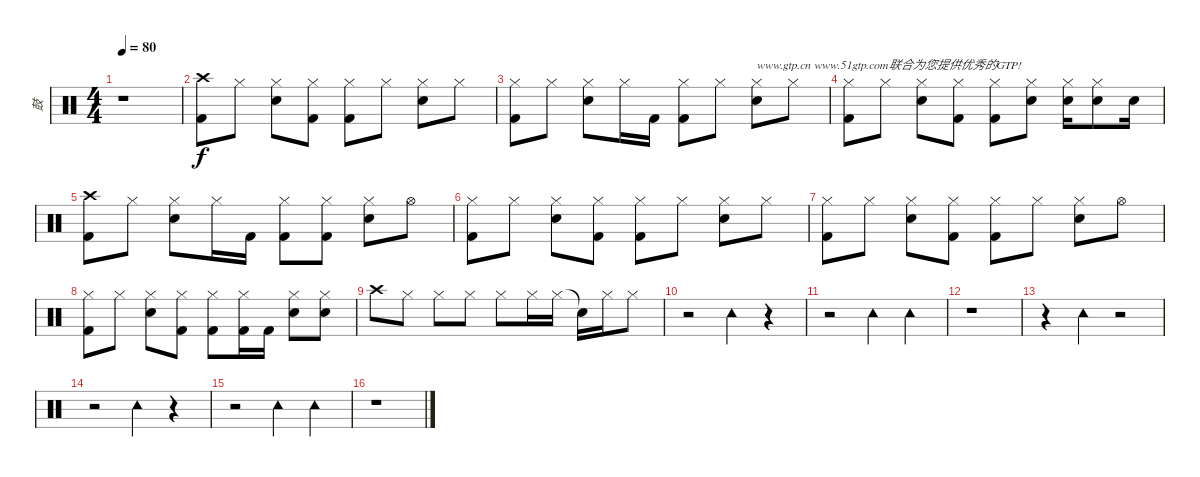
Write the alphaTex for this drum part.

\track ("鼓" "鼓") {instrument percussion}
\staff {score}
\articulation defaults
\ts (4 4)
\tempo 80
\clef neutral
\ks c
r.1{dy f} |
("Crash high (hit)" "Kick (hit) 2").8 "Hi-Hat (closed)".8 ("Hi-Hat (closed)" "Snare (hit) 2").8 ("Hi-Hat (closed)" "Kick (hit) 2").8 ("Hi-Hat (closed)" "Kick (hit) 2").8 "Hi-Hat (closed)".8 ("Hi-Hat (closed)" "Snare (hit) 2").8 "Hi-Hat (closed)".8 |
("Hi-Hat (closed)" "Kick (hit) 2").8 "Hi-Hat (closed)".8 ("Hi-Hat (closed)" "Snare (hit) 2").8 "Hi-Hat (closed)".16 "Kick (hit) 2".16 ("Hi-Hat (closed)" "Kick (hit) 2").8 "Hi-Hat (closed)".8 ("Hi-Hat (closed)" "Snare (hit) 2").8{txt "www.gtp.cn www.51gtp.com联合为您提供优秀的GTP!"} "Hi-Hat (closed)".8 |
("Hi-Hat (closed)" "Kick (hit) 2").8 "Hi-Hat (closed)".8 ("Hi-Hat (closed)" "Snare (hit) 2").8 ("Hi-Hat (closed)" "Kick (hit) 2").8 ("Hi-Hat (closed)" "Kick (hit) 2").8 ("Hi-Hat (closed)" "Snare (hit) 2").8 ("Hi-Hat (closed)" "Snare (hit) 2").16 ("Hi-Hat (closed)" "Snare (hit) 2").8 "Snare (hit) 2".16 |
("Crash high (hit)" "Kick (hit) 2").8 "Hi-Hat (closed)".8 ("Hi-Hat (closed)" "Snare (hit) 2").8 "Hi-Hat (closed)".16 "Kick (hit) 2".16 ("Hi-Hat (closed)" "Kick (hit) 2").8 ("Hi-Hat (closed)" "Kick (hit) 2").8 ("Hi-Hat (closed)" "Snare (hit) 2").8 "Hi-Hat (open)".8 |
("Hi-Hat (closed)" "Kick (hit) 2").8 "Hi-Hat (closed)".8 ("Hi-Hat (closed)" "Snare (hit) 2").8 ("Hi-Hat (closed)" "Kick (hit) 2").8 ("Hi-Hat (closed)" "Kick (hit) 2").8 "Hi-Hat (closed)".8 ("Hi-Hat (closed)" "Snare (hit) 2").8 "Hi-Hat (closed)".8 |
("Hi-Hat (closed)" "Kick (hit) 2").8 "Hi-Hat (closed)".8 ("Hi-Hat (closed)" "Snare (hit) 2").8 ("Hi-Hat (closed)" "Kick (hit) 2").8 ("Hi-Hat (closed)" "Kick (hit) 2").8 "Hi-Hat (closed)".8 ("Hi-Hat (closed)" "Snare (hit) 2").8 "Hi-Hat (open)".8 |
("Hi-Hat (closed)" "Kick (hit) 2").8 "Hi-Hat (closed)".8 ("Hi-Hat (closed)" "Snare (hit) 2").8 ("Hi-Hat (closed)" "Kick (hit) 2").8 ("Hi-Hat (closed)" "Kick (hit) 2").8 ("Hi-Hat (closed)" "Kick (hit) 2").16 "Kick (hit) 2".16 ("Hi-Hat (closed)" "Snare (hit) 2").8 ("Hi-Hat (closed)" "Snare (hit) 2").8 |
"Crash high (hit)".8 "Hi-Hat (closed)".8 "Hi-Hat (closed)".8 "Hi-Hat (closed)".8 "Hi-Hat (closed)".8 "Hi-Hat (closed)".16 "Hi-Hat (closed)".16 "Snare (hit)"{t}.16 "Hi-Hat (closed)".16 "Hi-Hat (closed)".8 |
r.2 "Tambourine (hit)".4 r.4 |
r.2 "Tambourine (hit)".4 "Tambourine (hit)".4 |
r.1 |
r.4 "Tambourine (hit)".4 r.2 |
r.2 "Tambourine (hit)".4 r.4 |
r.2 "Tambourine (hit)".4 "Tambourine (hit)".4 |
r.1
